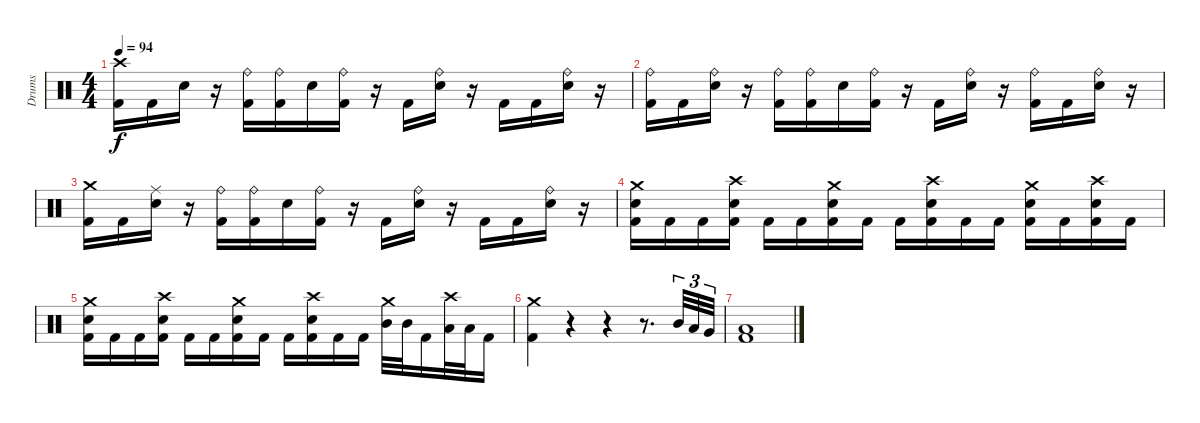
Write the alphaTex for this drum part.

\track ("Drums" "Drums") {instrument percussion}
\staff {score}
\articulation defaults
\ts (4 4)
\tempo 94
\clef neutral
\ks c
("Crash high (hit)" "Kick (hit) 2").16{dy f} "Kick (hit) 2".16 "Electric Snare (hit)".16 r.16 ("Ride (bell)" "Kick (hit) 2").16 ("Ride (bell)" "Kick (hit) 2").16 "Electric Snare (hit)".16 ("Ride (bell)" "Kick (hit) 2").16 r.16 "Kick (hit) 2".16 ("Ride (bell)" "Electric Snare (hit)").16 r.16 "Kick (hit) 2".16 "Kick (hit) 2".16 ("Ride (bell)" "Electric Snare (hit)").16 r.16 |
("Ride (bell)" "Kick (hit) 2").16 "Kick (hit) 2".16 ("Ride (bell)" "Electric Snare (hit)").16 r.16 ("Ride (bell)" "Kick (hit) 2").16 ("Ride (bell)" "Kick (hit) 2").16 "Electric Snare (hit)".16 ("Ride (bell)" "Kick (hit) 2").16 r.16 "Kick (hit) 2".16 ("Ride (bell)" "Electric Snare (hit)").16 r.16 ("Ride (bell)" "Kick (hit) 2").16 "Kick (hit) 2".16 ("Ride (bell)" "Electric Snare (hit)").16 r.16 |
("Crash medium (hit)" "Kick (hit) 2").16 "Kick (hit) 2".16 ("Ride (middle)" "Electric Snare (hit)").16 r.16 ("Ride (bell)" "Kick (hit) 2").16 ("Ride (bell)" "Kick (hit) 2").16 "Electric Snare (hit)".16 ("Ride (bell)" "Kick (hit) 2").16 r.16 "Kick (hit) 2".16 ("Ride (bell)" "Electric Snare (hit)").16 r.16 "Kick (hit) 2".16 "Kick (hit) 2".16 ("Ride (bell)" "Electric Snare (hit)").16 r.16 |
("Crash medium (hit)" "Electric Snare (hit)" "Kick (hit) 2").16 "Kick (hit) 2".16 "Kick (hit) 2".16 ("Crash high (hit)" "Electric Snare (hit)" "Kick (hit) 2").16 "Kick (hit) 2".16 "Kick (hit) 2".16 ("Crash medium (hit)" "Electric Snare (hit)" "Kick (hit) 2").16 "Kick (hit) 2".16 "Kick (hit) 2".16 ("Crash high (hit)" "Electric Snare (hit)" "Kick (hit) 2").16 "Kick (hit) 2".16 "Kick (hit) 2".16 ("Crash medium (hit)" "Electric Snare (hit)" "Kick (hit) 2").16 "Kick (hit) 2".16 ("Crash high (hit)" "Electric Snare (hit)" "Kick (hit) 2").16 "Kick (hit) 2".16 |
("Crash medium (hit)" "Electric Snare (hit)" "Kick (hit) 2").16 "Kick (hit) 2".16 "Kick (hit) 2".16 ("Crash high (hit)" "Electric Snare (hit)" "Kick (hit) 2").16 "Kick (hit) 2".16 "Kick (hit) 2".16 ("Crash medium (hit)" "Electric Snare (hit)" "Kick (hit) 2").16 "Kick (hit) 2".16 "Kick (hit) 2".16 ("Crash high (hit)" "Electric Snare (hit)" "Kick (hit) 2").16 "Kick (hit) 2".16 "Kick (hit) 2".16 ("Crash medium (hit)" "Mid Tom (hit)").32 "Mid Tom (hit)".32 "Kick (hit) 2".16 ("Crash high (hit)" "Low Tom (hit)").32 "Low Tom (hit)".32 "Kick (hit) 2".16 |
("Crash medium (hit)" "Kick (hit) 2").4 r.4 r.4 r.8{d} "Mid Tom (hit)".32{tu (3 2)} "Low Tom (hit)".32{tu (3 2)} "Very Low Tom (hit)".32{tu (3 2)} |
("Low Floor Tom (hit)" "Kick (hit) 2").1
